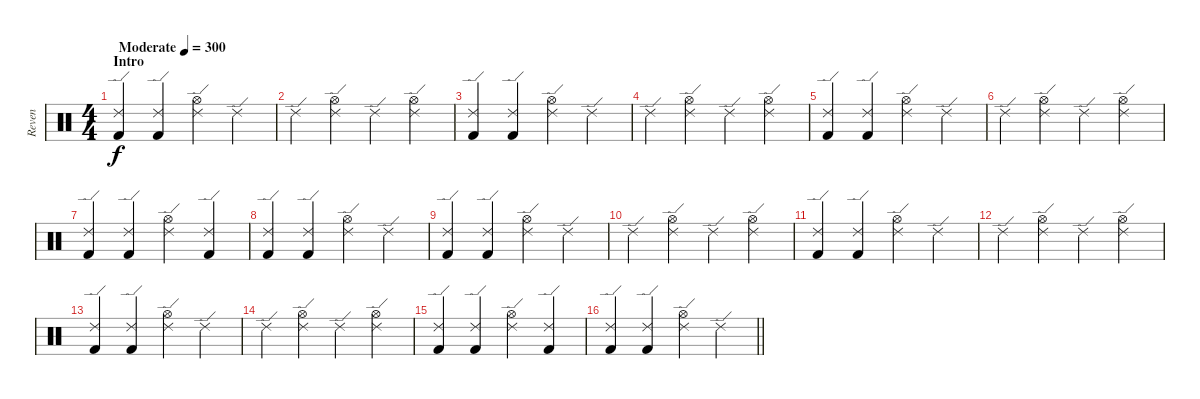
\track ("Reven" "Reven") {instrument percussion}
\staff {score}
\articulation defaults
\ts (4 4)
\section ("" "Intro")
\tempo (300 "Moderate")
\clef neutral
\ks c
("Ride (edge) 2" "Kick (hit) 2").4{dy f} ("Ride (edge) 2" "Kick (hit) 2").4 ("Ride (edge) 2" "Hi-Hat (open)").4 "Ride (edge) 2".4 |
"Ride (edge) 2".4 ("Ride (edge) 2" "Hi-Hat (open)").4 "Ride (edge) 2".4 ("Ride (edge) 2" "Hi-Hat (open)").4 |
("Ride (edge) 2" "Kick (hit) 2").4 ("Ride (edge) 2" "Kick (hit) 2").4 ("Ride (edge) 2" "Hi-Hat (open)").4 "Ride (edge) 2".4 |
"Ride (edge) 2".4 ("Ride (edge) 2" "Hi-Hat (open)").4 "Ride (edge) 2".4 ("Ride (edge) 2" "Hi-Hat (open)").4 |
("Ride (edge) 2" "Kick (hit) 2").4 ("Ride (edge) 2" "Kick (hit) 2").4 ("Ride (edge) 2" "Hi-Hat (open)").4 "Ride (edge) 2".4 |
"Ride (edge) 2".4 ("Ride (edge) 2" "Hi-Hat (open)").4 "Ride (edge) 2".4 ("Ride (edge) 2" "Hi-Hat (open)").4 |
("Ride (edge) 2" "Kick (hit) 2").4 ("Ride (edge) 2" "Kick (hit) 2").4 ("Ride (edge) 2" "Hi-Hat (open)").4 ("Ride (edge) 2" "Kick (hit) 2").4 |
("Ride (edge) 2" "Kick (hit) 2").4 ("Ride (edge) 2" "Kick (hit) 2").4 ("Ride (edge) 2" "Hi-Hat (open)").4 "Ride (edge) 2".4 |
("Ride (edge) 2" "Kick (hit) 2").4 ("Ride (edge) 2" "Kick (hit) 2").4 ("Ride (edge) 2" "Hi-Hat (open)").4 "Ride (edge) 2".4 |
"Ride (edge) 2".4 ("Ride (edge) 2" "Hi-Hat (open)").4 "Ride (edge) 2".4 ("Ride (edge) 2" "Hi-Hat (open)").4 |
("Ride (edge) 2" "Kick (hit) 2").4 ("Ride (edge) 2" "Kick (hit) 2").4 ("Ride (edge) 2" "Hi-Hat (open)").4 "Ride (edge) 2".4 |
"Ride (edge) 2".4 ("Ride (edge) 2" "Hi-Hat (open)").4 "Ride (edge) 2".4 ("Ride (edge) 2" "Hi-Hat (open)").4 |
("Ride (edge) 2" "Kick (hit) 2").4 ("Ride (edge) 2" "Kick (hit) 2").4 ("Ride (edge) 2" "Hi-Hat (open)").4 "Ride (edge) 2".4 |
"Ride (edge) 2".4 ("Ride (edge) 2" "Hi-Hat (open)").4 "Ride (edge) 2".4 ("Ride (edge) 2" "Hi-Hat (open)").4 |
("Ride (edge) 2" "Kick (hit) 2").4 ("Ride (edge) 2" "Kick (hit) 2").4 ("Ride (edge) 2" "Hi-Hat (open)").4 ("Ride (edge) 2" "Kick (hit) 2").4 |
\barLineRight lightlight
("Ride (edge) 2" "Kick (hit) 2").4 ("Ride (edge) 2" "Kick (hit) 2").4 ("Ride (edge) 2" "Hi-Hat (open)").4 "Ride (edge) 2".4
